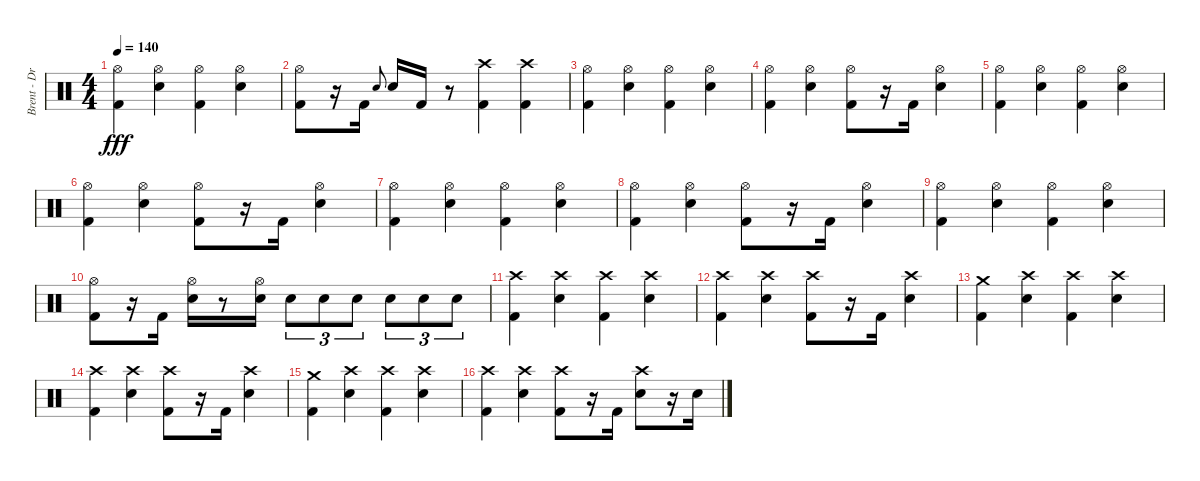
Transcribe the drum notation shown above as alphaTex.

\track ("Brent - Drums" "Brent - Dr") {instrument percussion}
\staff {score}
\articulation defaults
\ts (4 4)
\tempo 140
\clef neutral
\ks c
("Hi-Hat (open)" "Kick (hit) 2").4{dy fff} ("Hi-Hat (open)" "Snare (hit) 2").4 ("Hi-Hat (open)" "Kick (hit) 2").4 ("Hi-Hat (open)" "Snare (hit) 2").4 |
("Hi-Hat (open)" "Kick (hit) 2").8 r.16 "Kick (hit) 2".16 "Snare (hit) 2".8{gr onbeat} "Snare (hit) 2".16 "Kick (hit) 2".16 r.8 ("Crash high (hit)" "Kick (hit) 2").4 ("Crash high (hit)" "Kick (hit) 2").4 |
("Hi-Hat (open)" "Kick (hit) 2").4 ("Hi-Hat (open)" "Snare (hit) 2").4 ("Hi-Hat (open)" "Kick (hit) 2").4 ("Hi-Hat (open)" "Snare (hit) 2").4 |
("Hi-Hat (open)" "Kick (hit) 2").4 ("Hi-Hat (open)" "Snare (hit) 2").4 ("Hi-Hat (open)" "Kick (hit) 2").8 r.16 "Kick (hit) 2".16 ("Hi-Hat (open)" "Snare (hit) 2").4 |
("Hi-Hat (open)" "Kick (hit) 2").4 ("Hi-Hat (open)" "Snare (hit) 2").4 ("Hi-Hat (open)" "Kick (hit) 2").4 ("Hi-Hat (open)" "Snare (hit) 2").4 |
("Hi-Hat (open)" "Kick (hit) 2").4 ("Hi-Hat (open)" "Snare (hit) 2").4 ("Hi-Hat (open)" "Kick (hit) 2").8 r.16 "Kick (hit) 2".16 ("Hi-Hat (open)" "Snare (hit) 2").4 |
("Hi-Hat (open)" "Kick (hit) 2").4 ("Hi-Hat (open)" "Snare (hit) 2").4 ("Hi-Hat (open)" "Kick (hit) 2").4 ("Hi-Hat (open)" "Snare (hit) 2").4 |
("Hi-Hat (open)" "Kick (hit) 2").4 ("Hi-Hat (open)" "Snare (hit) 2").4 ("Hi-Hat (open)" "Kick (hit) 2").8 r.16 "Kick (hit) 2".16 ("Hi-Hat (open)" "Snare (hit) 2").4 |
("Hi-Hat (open)" "Kick (hit) 2").4 ("Hi-Hat (open)" "Snare (hit) 2").4 ("Hi-Hat (open)" "Kick (hit) 2").4 ("Hi-Hat (open)" "Snare (hit) 2").4 |
("Hi-Hat (open)" "Kick (hit) 2").8 r.16 "Kick (hit) 2".16 ("Hi-Hat (open)" "Snare (hit) 2").16 r.8 ("Hi-Hat (open)" "Snare (hit) 2").16 "Snare (hit) 2".8{tu (3 2)} "Snare (hit) 2".8{tu (3 2)} "Snare (hit) 2".8{tu (3 2)} "Snare (hit) 2".8{tu (3 2)} "Snare (hit) 2".8{tu (3 2)} "Snare (hit) 2".8{tu (3 2)} |
("Crash high (hit)" "Kick (hit) 2").4 ("Crash high (hit)" "Snare (hit) 2").4 ("Crash high (hit)" "Kick (hit) 2").4 ("Crash high (hit)" "Snare (hit) 2").4 |
("Crash high (hit)" "Kick (hit) 2").4 ("Crash high (hit)" "Snare (hit) 2").4 ("Crash high (hit)" "Kick (hit) 2").8 r.16 "Kick (hit) 2".16 ("Crash high (hit)" "Snare (hit) 2").4 |
("Crash medium (hit)" "Kick (hit) 2").4 ("Crash high (hit)" "Snare (hit) 2").4 ("Crash high (hit)" "Kick (hit) 2").4 ("Crash high (hit)" "Snare (hit) 2").4 |
("Crash high (hit)" "Kick (hit) 2").4 ("Crash high (hit)" "Snare (hit) 2").4 ("Crash high (hit)" "Kick (hit) 2").8 r.16 "Kick (hit) 2".16 ("Crash high (hit)" "Snare (hit) 2").4 |
("Crash medium (hit)" "Kick (hit) 2").4 ("Crash high (hit)" "Snare (hit) 2").4 ("Crash high (hit)" "Kick (hit) 2").4 ("Crash high (hit)" "Snare (hit) 2").4 |
("Crash high (hit)" "Kick (hit) 2").4 ("Crash high (hit)" "Snare (hit) 2").4 ("Crash high (hit)" "Kick (hit) 2").8 r.16 "Kick (hit) 2".16 ("Crash high (hit)" "Snare (hit) 2").8 r.16 "Snare (hit) 2".16
